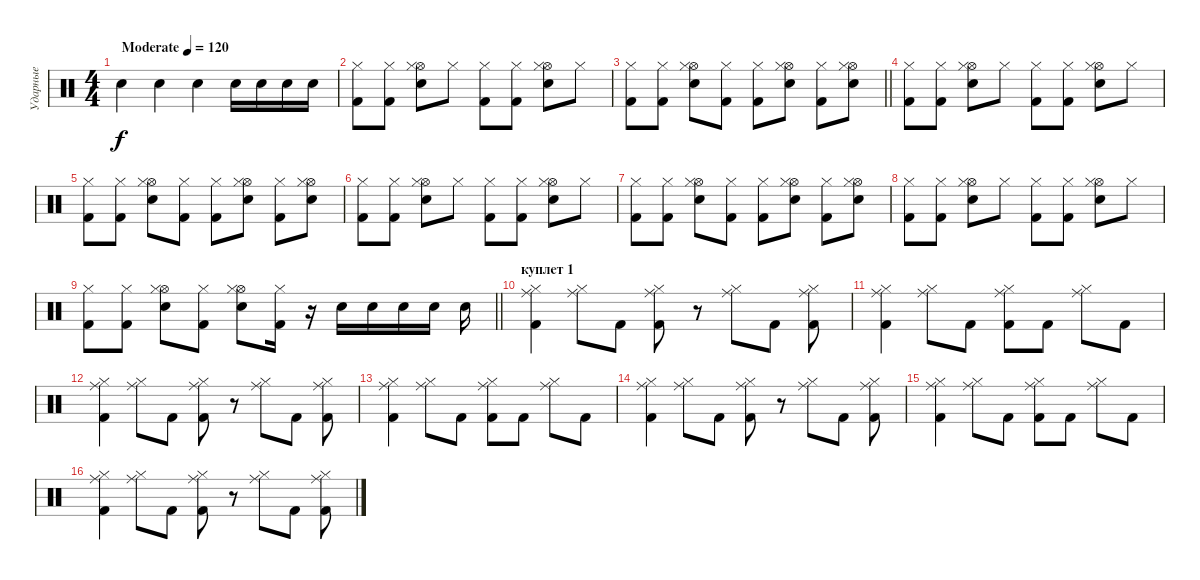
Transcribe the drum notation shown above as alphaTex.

\track ("Ударные" "Ударные") {instrument percussion}
\staff {score}
\articulation defaults
\ts (4 4)
\tempo (120 "Moderate")
\clef neutral
\ks c "Snare (hit) 2".4{dy f} "Snare (hit) 2".4 "Snare (hit) 2".4 "Snare (hit) 2".16 "Snare (hit) 2".16 "Snare (hit) 2".16 "Snare (hit) 2".16
|
("Kick (hit) 2" "Hi-Hat (closed)").8 ("Kick (hit) 2" "Hi-Hat (closed)").8 ("Hi-Hat (open)" "Hi-Hat (closed)" "Snare (hit) 2").8 "Hi-Hat (closed)".8 ("Kick (hit) 2" "Hi-Hat (closed)").8 ("Kick (hit) 2" "Hi-Hat (closed)").8 ("Hi-Hat (open)" "Hi-Hat (closed)" "Snare (hit) 2").8 "Hi-Hat (closed)".8 |
\barLineRight lightlight
("Kick (hit) 2" "Hi-Hat (closed)").8 ("Kick (hit) 2" "Hi-Hat (closed)").8 ("Hi-Hat (open)" "Hi-Hat (closed)" "Snare (hit) 2").8 ("Kick (hit) 2" "Hi-Hat (closed)").8 ("Kick (hit) 2" "Hi-Hat (closed)").8 ("Hi-Hat (open)" "Hi-Hat (closed)" "Snare (hit) 2").8 ("Kick (hit) 2" "Hi-Hat (closed)").8 ("Hi-Hat (open)" "Hi-Hat (closed)" "Snare (hit) 2").8 |
("Kick (hit) 2" "Hi-Hat (closed)").8 ("Kick (hit) 2" "Hi-Hat (closed)").8 ("Hi-Hat (open)" "Hi-Hat (closed)" "Snare (hit) 2").8 "Hi-Hat (closed)".8 ("Kick (hit) 2" "Hi-Hat (closed)").8 ("Kick (hit) 2" "Hi-Hat (closed)").8 ("Hi-Hat (open)" "Hi-Hat (closed)" "Snare (hit) 2").8 "Hi-Hat (closed)".8 |
("Kick (hit) 2" "Hi-Hat (closed)").8 ("Kick (hit) 2" "Hi-Hat (closed)").8 ("Hi-Hat (open)" "Hi-Hat (closed)" "Snare (hit) 2").8 ("Kick (hit) 2" "Hi-Hat (closed)").8 ("Kick (hit) 2" "Hi-Hat (closed)").8 ("Hi-Hat (open)" "Hi-Hat (closed)" "Snare (hit) 2").8 ("Kick (hit) 2" "Hi-Hat (closed)").8 ("Hi-Hat (open)" "Hi-Hat (closed)" "Snare (hit) 2").8 |
("Kick (hit) 2" "Hi-Hat (closed)").8 ("Kick (hit) 2" "Hi-Hat (closed)").8 ("Hi-Hat (open)" "Hi-Hat (closed)" "Snare (hit) 2").8 "Hi-Hat (closed)".8 ("Kick (hit) 2" "Hi-Hat (closed)").8 ("Kick (hit) 2" "Hi-Hat (closed)").8 ("Hi-Hat (open)" "Hi-Hat (closed)" "Snare (hit) 2").8 "Hi-Hat (closed)".8 |
("Kick (hit) 2" "Hi-Hat (closed)").8 ("Kick (hit) 2" "Hi-Hat (closed)").8 ("Hi-Hat (open)" "Hi-Hat (closed)" "Snare (hit) 2").8 ("Kick (hit) 2" "Hi-Hat (closed)").8 ("Kick (hit) 2" "Hi-Hat (closed)").8 ("Hi-Hat (open)" "Hi-Hat (closed)" "Snare (hit) 2").8 ("Kick (hit) 2" "Hi-Hat (closed)").8 ("Hi-Hat (open)" "Hi-Hat (closed)" "Snare (hit) 2").8 |
("Kick (hit) 2" "Hi-Hat (closed)").8 ("Kick (hit) 2" "Hi-Hat (closed)").8 ("Hi-Hat (open)" "Hi-Hat (closed)" "Snare (hit) 2").8 "Hi-Hat (closed)".8 ("Kick (hit) 2" "Hi-Hat (closed)").8 ("Kick (hit) 2" "Hi-Hat (closed)").8 ("Hi-Hat (open)" "Hi-Hat (closed)" "Snare (hit) 2").8 "Hi-Hat (closed)".8 |
\barLineRight lightlight
("Kick (hit) 2" "Hi-Hat (closed)").8 ("Kick (hit) 2" "Hi-Hat (closed)").8 ("Hi-Hat (open)" "Hi-Hat (closed)" "Snare (hit) 2").8 ("Kick (hit) 2" "Hi-Hat (closed)").8 ("Hi-Hat (open)" "Hi-Hat (closed)" "Snare (hit) 2").8 ("Kick (hit) 2" "Hi-Hat (closed)").16 r.16 "Snare (hit) 2".16 "Snare (hit) 2".16 "Snare (hit) 2".16 "Snare (hit) 2".16 "Snare (hit) 2".16 |
\section ("" "куплет 1")
("Hi-Hat (closed)" "Ride (middle)" "Kick (hit) 2").4 ("Hi-Hat (closed)" "Ride (middle)").8 "Kick (hit) 2".8 ("Hi-Hat (closed)" "Ride (middle)" "Kick (hit) 2").8 r.8 ("Hi-Hat (closed)" "Ride (middle)").8 "Kick (hit) 2".8 ("Hi-Hat (closed)" "Ride (middle)" "Kick (hit) 2").8 |
("Hi-Hat (closed)" "Ride (middle)" "Kick (hit) 2").4 ("Hi-Hat (closed)" "Ride (middle)").8 "Kick (hit) 2".8 ("Hi-Hat (closed)" "Ride (middle)" "Kick (hit) 2").8 "Kick (hit) 2".8 ("Hi-Hat (closed)" "Ride (middle)").8 "Kick (hit) 2".8 |
("Hi-Hat (closed)" "Ride (middle)" "Kick (hit) 2").4 ("Hi-Hat (closed)" "Ride (middle)").8 "Kick (hit) 2".8 ("Hi-Hat (closed)" "Ride (middle)" "Kick (hit) 2").8 r.8 ("Hi-Hat (closed)" "Ride (middle)").8 "Kick (hit) 2".8 ("Hi-Hat (closed)" "Ride (middle)" "Kick (hit) 2").8 |
("Hi-Hat (closed)" "Ride (middle)" "Kick (hit) 2").4 ("Hi-Hat (closed)" "Ride (middle)").8 "Kick (hit) 2".8 ("Hi-Hat (closed)" "Ride (middle)" "Kick (hit) 2").8 "Kick (hit) 2".8 ("Hi-Hat (closed)" "Ride (middle)").8 "Kick (hit) 2".8 |
("Hi-Hat (closed)" "Ride (middle)" "Kick (hit) 2").4 ("Hi-Hat (closed)" "Ride (middle)").8 "Kick (hit) 2".8 ("Hi-Hat (closed)" "Ride (middle)" "Kick (hit) 2").8 r.8 ("Hi-Hat (closed)" "Ride (middle)").8 "Kick (hit) 2".8 ("Hi-Hat (closed)" "Ride (middle)" "Kick (hit) 2").8 |
("Hi-Hat (closed)" "Ride (middle)" "Kick (hit) 2").4 ("Hi-Hat (closed)" "Ride (middle)").8 "Kick (hit) 2".8 ("Hi-Hat (closed)" "Ride (middle)" "Kick (hit) 2").8 "Kick (hit) 2".8 ("Hi-Hat (closed)" "Ride (middle)").8 "Kick (hit) 2".8 |
("Hi-Hat (closed)" "Ride (middle)" "Kick (hit) 2").4 ("Hi-Hat (closed)" "Ride (middle)").8 "Kick (hit) 2".8 ("Hi-Hat (closed)" "Ride (middle)" "Kick (hit) 2").8 r.8 ("Hi-Hat (closed)" "Ride (middle)").8 "Kick (hit) 2".8 ("Hi-Hat (closed)" "Ride (middle)" "Kick (hit) 2").8
